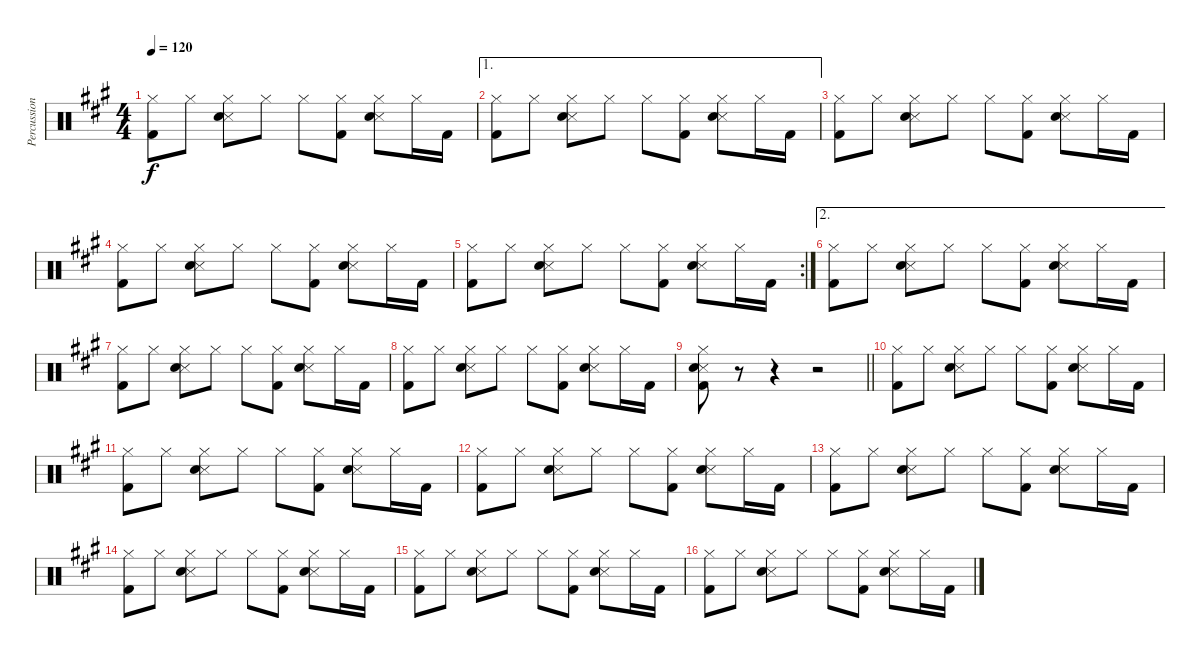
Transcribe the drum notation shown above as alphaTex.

\track ("Percussion" "Percussion") {instrument percussion}
\staff {score}
\articulation defaults
\ts (4 4)
\tempo 120
\clef neutral
\ks a
("Hi-Hat (closed)" "Kick (hit) 2").8{dy f} "Hi-Hat (closed)".8 ("Hi-Hat (closed)" "Snare (side stick) 3" "Electric Snare (hit)").8 "Hi-Hat (closed)".8 "Hi-Hat (closed)".8 ("Hi-Hat (closed)" "Kick (hit) 2").8 ("Hi-Hat (closed)" "Snare (side stick) 3" "Electric Snare (hit)").8 "Hi-Hat (closed)".16 "Kick (hit) 2".16 |
\ae 1
("Hi-Hat (closed)" "Kick (hit) 2").8 "Hi-Hat (closed)".8 ("Hi-Hat (closed)" "Snare (side stick) 3" "Electric Snare (hit)").8 "Hi-Hat (closed)".8 "Hi-Hat (closed)".8 ("Hi-Hat (closed)" "Kick (hit) 2").8 ("Hi-Hat (closed)" "Snare (side stick) 3" "Electric Snare (hit)").8 "Hi-Hat (closed)".16 "Kick (hit) 2".16 |
("Hi-Hat (closed)" "Kick (hit) 2").8 "Hi-Hat (closed)".8 ("Hi-Hat (closed)" "Snare (side stick) 3" "Electric Snare (hit)").8 "Hi-Hat (closed)".8 "Hi-Hat (closed)".8 ("Hi-Hat (closed)" "Kick (hit) 2").8 ("Hi-Hat (closed)" "Snare (side stick) 3" "Electric Snare (hit)").8 "Hi-Hat (closed)".16 "Kick (hit) 2".16 |
("Hi-Hat (closed)" "Kick (hit) 2").8 "Hi-Hat (closed)".8 ("Hi-Hat (closed)" "Snare (side stick) 3" "Electric Snare (hit)").8 "Hi-Hat (closed)".8 "Hi-Hat (closed)".8 ("Hi-Hat (closed)" "Kick (hit) 2").8 ("Hi-Hat (closed)" "Snare (side stick) 3" "Electric Snare (hit)").8 "Hi-Hat (closed)".16 "Kick (hit) 2".16 |
\rc 2
("Hi-Hat (closed)" "Kick (hit) 2").8 "Hi-Hat (closed)".8 ("Hi-Hat (closed)" "Snare (side stick) 3" "Electric Snare (hit)").8 "Hi-Hat (closed)".8 "Hi-Hat (closed)".8 ("Hi-Hat (closed)" "Kick (hit) 2").8 ("Hi-Hat (closed)" "Snare (side stick) 3" "Electric Snare (hit)").8 "Hi-Hat (closed)".16 "Kick (hit) 2".16 |
\ae 2
("Hi-Hat (closed)" "Kick (hit) 2").8 "Hi-Hat (closed)".8 ("Hi-Hat (closed)" "Snare (side stick) 3" "Electric Snare (hit)").8 "Hi-Hat (closed)".8 "Hi-Hat (closed)".8 ("Hi-Hat (closed)" "Kick (hit) 2").8 ("Hi-Hat (closed)" "Snare (side stick) 3" "Electric Snare (hit)").8 "Hi-Hat (closed)".16 "Kick (hit) 2".16 |
("Hi-Hat (closed)" "Kick (hit) 2").8 "Hi-Hat (closed)".8 ("Hi-Hat (closed)" "Snare (side stick) 3" "Electric Snare (hit)").8 "Hi-Hat (closed)".8 "Hi-Hat (closed)".8 ("Hi-Hat (closed)" "Kick (hit) 2").8 ("Hi-Hat (closed)" "Snare (side stick) 3" "Electric Snare (hit)").8 "Hi-Hat (closed)".16 "Kick (hit) 2".16 |
("Hi-Hat (closed)" "Kick (hit) 2").8 "Hi-Hat (closed)".8 ("Hi-Hat (closed)" "Snare (side stick) 3" "Electric Snare (hit)").8 "Hi-Hat (closed)".8 "Hi-Hat (closed)".8 ("Hi-Hat (closed)" "Kick (hit) 2").8 ("Hi-Hat (closed)" "Snare (side stick) 3" "Electric Snare (hit)").8 "Hi-Hat (closed)".16 "Kick (hit) 2".16 |
\barLineRight lightlight
("Snare (side stick) 3" "Hi-Hat (closed)" "Electric Snare (hit)" "Kick (hit) 2").8 r.8 r.4 r.2 |
("Hi-Hat (closed)" "Kick (hit) 2").8 "Hi-Hat (closed)".8 ("Hi-Hat (closed)" "Snare (side stick) 3" "Electric Snare (hit)").8 "Hi-Hat (closed)".8 "Hi-Hat (closed)".8 ("Hi-Hat (closed)" "Kick (hit) 2").8 ("Hi-Hat (closed)" "Snare (side stick) 3" "Electric Snare (hit)").8 "Hi-Hat (closed)".16 "Kick (hit) 2".16 |
("Hi-Hat (closed)" "Kick (hit) 2").8 "Hi-Hat (closed)".8 ("Hi-Hat (closed)" "Snare (side stick) 3" "Electric Snare (hit)").8 "Hi-Hat (closed)".8 "Hi-Hat (closed)".8 ("Hi-Hat (closed)" "Kick (hit) 2").8 ("Hi-Hat (closed)" "Snare (side stick) 3" "Electric Snare (hit)").8 "Hi-Hat (closed)".16 "Kick (hit) 2".16 |
("Hi-Hat (closed)" "Kick (hit) 2").8 "Hi-Hat (closed)".8 ("Hi-Hat (closed)" "Snare (side stick) 3" "Electric Snare (hit)").8 "Hi-Hat (closed)".8 "Hi-Hat (closed)".8 ("Hi-Hat (closed)" "Kick (hit) 2").8 ("Hi-Hat (closed)" "Snare (side stick) 3" "Electric Snare (hit)").8 "Hi-Hat (closed)".16 "Kick (hit) 2".16 |
("Hi-Hat (closed)" "Kick (hit) 2").8 "Hi-Hat (closed)".8 ("Hi-Hat (closed)" "Snare (side stick) 3" "Electric Snare (hit)").8 "Hi-Hat (closed)".8 "Hi-Hat (closed)".8 ("Hi-Hat (closed)" "Kick (hit) 2").8 ("Hi-Hat (closed)" "Snare (side stick) 3" "Electric Snare (hit)").8 "Hi-Hat (closed)".16 "Kick (hit) 2".16 |
("Hi-Hat (closed)" "Kick (hit) 2").8 "Hi-Hat (closed)".8 ("Hi-Hat (closed)" "Snare (side stick) 3" "Electric Snare (hit)").8 "Hi-Hat (closed)".8 "Hi-Hat (closed)".8 ("Hi-Hat (closed)" "Kick (hit) 2").8 ("Hi-Hat (closed)" "Snare (side stick) 3" "Electric Snare (hit)").8 "Hi-Hat (closed)".16 "Kick (hit) 2".16 |
("Hi-Hat (closed)" "Kick (hit) 2").8 "Hi-Hat (closed)".8 ("Hi-Hat (closed)" "Snare (side stick) 3" "Electric Snare (hit)").8 "Hi-Hat (closed)".8 "Hi-Hat (closed)".8 ("Hi-Hat (closed)" "Kick (hit) 2").8 ("Hi-Hat (closed)" "Snare (side stick) 3" "Electric Snare (hit)").8 "Hi-Hat (closed)".16 "Kick (hit) 2".16 |
("Hi-Hat (closed)" "Kick (hit) 2").8 "Hi-Hat (closed)".8 ("Hi-Hat (closed)" "Snare (side stick) 3" "Electric Snare (hit)").8 "Hi-Hat (closed)".8 "Hi-Hat (closed)".8 ("Hi-Hat (closed)" "Kick (hit) 2").8 ("Hi-Hat (closed)" "Snare (side stick) 3" "Electric Snare (hit)").8 "Hi-Hat (closed)".16 "Kick (hit) 2".16
